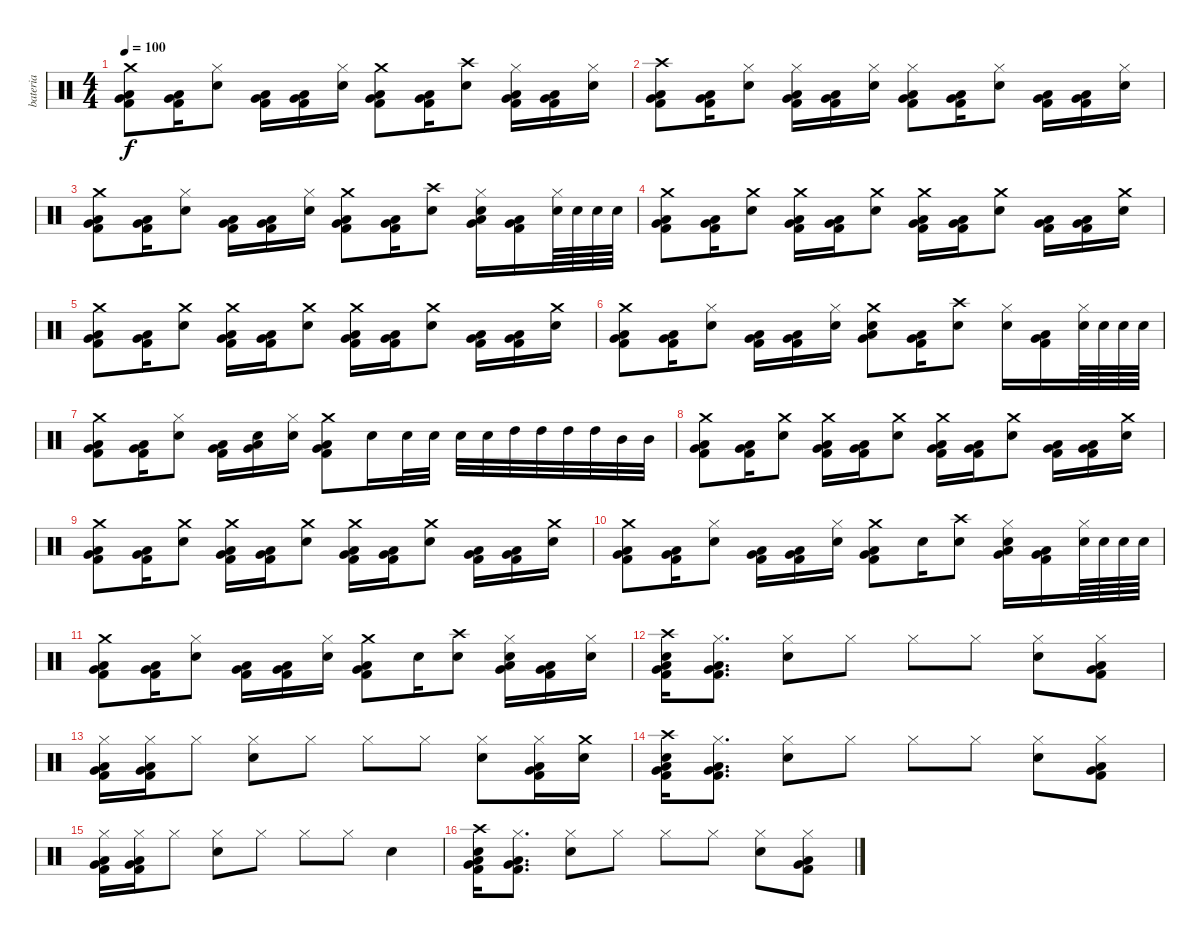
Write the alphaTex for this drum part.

\track ("bateria" "bateria") {instrument percussion}
\staff {score}
\articulation defaults
\ts (4 4)
\tempo 100
\clef neutral
\ks c
("Crash medium (hit)" "Kick (hit) 2" "Low Floor Tom (hit)" "Very Low Tom (hit)").8{dy f} ("Kick (hit) 2" "Low Floor Tom (hit)" "Very Low Tom (hit)").16 ("Hi-Hat (closed)" "Electric Snare (hit)").8 ("Kick (hit) 2" "Low Floor Tom (hit)" "Very Low Tom (hit)").16 ("Kick (hit) 2" "Low Floor Tom (hit)" "Very Low Tom (hit)").16 ("Hi-Hat (closed)" "Electric Snare (hit)").16 ("Crash medium (hit)" "Kick (hit) 2" "Low Floor Tom (hit)" "Very Low Tom (hit)").8 ("Kick (hit) 2" "Low Floor Tom (hit)" "Very Low Tom (hit)").16 ("Crash high (hit)" "Electric Snare (hit)").8 ("Hi-Hat (closed)" "Kick (hit) 2" "Low Floor Tom (hit)" "Very Low Tom (hit)").16 ("Kick (hit) 2" "Low Floor Tom (hit)" "Very Low Tom (hit)").16 ("Hi-Hat (closed)" "Electric Snare (hit)").16 |
("Crash high (hit)" "Kick (hit) 2" "Low Floor Tom (hit)" "Very Low Tom (hit)").8 ("Kick (hit) 2" "Low Floor Tom (hit)" "Very Low Tom (hit)").16 ("Hi-Hat (closed)" "Electric Snare (hit)").8 ("Hi-Hat (closed)" "Kick (hit) 2" "Low Floor Tom (hit)" "Very Low Tom (hit)").16 ("Kick (hit) 2" "Low Floor Tom (hit)" "Very Low Tom (hit)").16 ("Hi-Hat (closed)" "Electric Snare (hit)").16 ("Hi-Hat (closed)" "Kick (hit) 2" "Low Floor Tom (hit)" "Very Low Tom (hit)").8 ("Kick (hit) 2" "Low Floor Tom (hit)" "Very Low Tom (hit)").16 ("Hi-Hat (closed)" "Electric Snare (hit)").8 ("Kick (hit) 2" "Low Floor Tom (hit)" "Very Low Tom (hit)").16 ("Kick (hit) 2" "Low Floor Tom (hit)" "Very Low Tom (hit)").16 ("Hi-Hat (closed)" "Electric Snare (hit)").16 |
("Crash medium (hit)" "Kick (hit) 2" "Low Floor Tom (hit)" "Very Low Tom (hit)").8 ("Kick (hit) 2" "Low Floor Tom (hit)" "Very Low Tom (hit)").16 ("Hi-Hat (closed)" "Electric Snare (hit)").8 ("Kick (hit) 2" "Low Floor Tom (hit)" "Very Low Tom (hit)").16 ("Kick (hit) 2" "Low Floor Tom (hit)" "Very Low Tom (hit)").16 ("Hi-Hat (closed)" "Electric Snare (hit)").16 ("Crash medium (hit)" "Kick (hit) 2" "Low Floor Tom (hit)" "Very Low Tom (hit)").8 ("Kick (hit) 2" "Low Floor Tom (hit)" "Very Low Tom (hit)").16 ("Crash high (hit)" "Electric Snare (hit)").8 ("Hi-Hat (closed)" "Electric Snare (hit)" "Low Floor Tom (hit)" "Very Low Tom (hit)").16 ("Kick (hit) 2" "Low Floor Tom (hit)" "Very Low Tom (hit)").16 ("Hi-Hat (closed)" "Electric Snare (hit)").64 "Electric Snare (hit)".64 "Electric Snare (hit)".64 "Electric Snare (hit)".64 |
("Crash medium (hit)" "Kick (hit) 2" "Low Floor Tom (hit)" "Very Low Tom (hit)").8 ("Kick (hit) 2" "Low Floor Tom (hit)" "Very Low Tom (hit)").16 ("Crash medium (hit)" "Electric Snare (hit)").8 ("Crash medium (hit)" "Kick (hit) 2" "Low Floor Tom (hit)" "Very Low Tom (hit)").16 ("Kick (hit) 2" "Low Floor Tom (hit)" "Very Low Tom (hit)").16 ("Crash medium (hit)" "Electric Snare (hit)").8 ("Crash medium (hit)" "Kick (hit) 2" "Low Floor Tom (hit)" "Very Low Tom (hit)").16 ("Kick (hit) 2" "Low Floor Tom (hit)" "Very Low Tom (hit)").16 ("Crash medium (hit)" "Electric Snare (hit)").8 ("Kick (hit) 2" "Low Floor Tom (hit)" "Very Low Tom (hit)").16 ("Kick (hit) 2" "Low Floor Tom (hit)" "Very Low Tom (hit)").16 ("Crash medium (hit)" "Electric Snare (hit)").16 |
("Crash medium (hit)" "Kick (hit) 2" "Low Floor Tom (hit)" "Very Low Tom (hit)").8 ("Kick (hit) 2" "Low Floor Tom (hit)" "Very Low Tom (hit)").16 ("Crash medium (hit)" "Electric Snare (hit)").8 ("Crash medium (hit)" "Kick (hit) 2" "Low Floor Tom (hit)" "Very Low Tom (hit)").16 ("Kick (hit) 2" "Low Floor Tom (hit)" "Very Low Tom (hit)").16 ("Crash medium (hit)" "Electric Snare (hit)").8 ("Crash medium (hit)" "Kick (hit) 2" "Low Floor Tom (hit)" "Very Low Tom (hit)").16 ("Kick (hit) 2" "Low Floor Tom (hit)" "Very Low Tom (hit)").16 ("Crash medium (hit)" "Electric Snare (hit)").8 ("Kick (hit) 2" "Low Floor Tom (hit)" "Very Low Tom (hit)").16 ("Kick (hit) 2" "Low Floor Tom (hit)" "Very Low Tom (hit)").16 ("Crash medium (hit)" "Electric Snare (hit)").16 |
("Crash medium (hit)" "Kick (hit) 2" "Low Floor Tom (hit)" "Very Low Tom (hit)").8 ("Kick (hit) 2" "Low Floor Tom (hit)" "Very Low Tom (hit)").16 ("Hi-Hat (closed)" "Electric Snare (hit)").8 ("Kick (hit) 2" "Low Floor Tom (hit)" "Very Low Tom (hit)").16 ("Kick (hit) 2" "Low Floor Tom (hit)" "Very Low Tom (hit)").16 ("Hi-Hat (closed)" "Electric Snare (hit)").16 ("Crash medium (hit)" "Electric Snare (hit)" "Low Floor Tom (hit)" "Very Low Tom (hit)").8 ("Kick (hit) 2" "Low Floor Tom (hit)" "Very Low Tom (hit)").16 ("Crash high (hit)" "Electric Snare (hit)").8 ("Hi-Hat (closed)" "Electric Snare (hit)").16 ("Kick (hit) 2" "Low Floor Tom (hit)" "Very Low Tom (hit)").16 ("Hi-Hat (closed)" "Electric Snare (hit)").64 "Electric Snare (hit)".64 "Electric Snare (hit)".64 "Electric Snare (hit)".64 |
("Crash medium (hit)" "Kick (hit) 2" "Low Floor Tom (hit)" "Very Low Tom (hit)").8 ("Kick (hit) 2" "Low Floor Tom (hit)" "Very Low Tom (hit)").16 ("Hi-Hat (closed)" "Electric Snare (hit)").8 ("Kick (hit) 2" "Low Floor Tom (hit)" "Very Low Tom (hit)").16 ("Electric Snare (hit)" "Low Floor Tom (hit)" "Very Low Tom (hit)").16 ("Hi-Hat (closed)" "Electric Snare (hit)").16 ("Crash medium (hit)" "Kick (hit) 2" "Low Floor Tom (hit)" "Very Low Tom (hit)").8 "Electric Snare (hit)".16 "Electric Snare (hit)".32 "Electric Snare (hit)".32 "Electric Snare (hit)".32 "Electric Snare (hit)".32 "High Tom (hit)".32 "High Tom (hit)".32 "High Tom (hit)".32 "High Tom (hit)".32 "Mid Tom (hit)".32 "Mid Tom (hit)".32 |
("Crash medium (hit)" "Kick (hit) 2" "Low Floor Tom (hit)" "Very Low Tom (hit)").8 ("Kick (hit) 2" "Low Floor Tom (hit)" "Very Low Tom (hit)").16 ("Crash medium (hit)" "Electric Snare (hit)").8 ("Crash medium (hit)" "Kick (hit) 2" "Low Floor Tom (hit)" "Very Low Tom (hit)").16 ("Kick (hit) 2" "Low Floor Tom (hit)" "Very Low Tom (hit)").16 ("Crash medium (hit)" "Electric Snare (hit)").8 ("Crash medium (hit)" "Kick (hit) 2" "Low Floor Tom (hit)" "Very Low Tom (hit)").16 ("Kick (hit) 2" "Low Floor Tom (hit)" "Very Low Tom (hit)").16 ("Crash medium (hit)" "Electric Snare (hit)").8 ("Kick (hit) 2" "Low Floor Tom (hit)" "Very Low Tom (hit)").16 ("Kick (hit) 2" "Low Floor Tom (hit)" "Very Low Tom (hit)").16 ("Crash medium (hit)" "Electric Snare (hit)").16 |
("Crash medium (hit)" "Kick (hit) 2" "Low Floor Tom (hit)" "Very Low Tom (hit)").8 ("Kick (hit) 2" "Low Floor Tom (hit)" "Very Low Tom (hit)").16 ("Crash medium (hit)" "Electric Snare (hit)").8 ("Crash medium (hit)" "Kick (hit) 2" "Low Floor Tom (hit)" "Very Low Tom (hit)").16 ("Kick (hit) 2" "Low Floor Tom (hit)" "Very Low Tom (hit)").16 ("Crash medium (hit)" "Electric Snare (hit)").8 ("Crash medium (hit)" "Kick (hit) 2" "Low Floor Tom (hit)" "Very Low Tom (hit)").16 ("Kick (hit) 2" "Low Floor Tom (hit)" "Very Low Tom (hit)").16 ("Crash medium (hit)" "Electric Snare (hit)").8 ("Kick (hit) 2" "Low Floor Tom (hit)" "Very Low Tom (hit)").16 ("Kick (hit) 2" "Low Floor Tom (hit)" "Very Low Tom (hit)").16 ("Crash medium (hit)" "Electric Snare (hit)").16 |
("Crash medium (hit)" "Kick (hit) 2" "Low Floor Tom (hit)" "Very Low Tom (hit)").8 ("Kick (hit) 2" "Low Floor Tom (hit)" "Very Low Tom (hit)").16 ("Hi-Hat (closed)" "Electric Snare (hit)").8 ("Kick (hit) 2" "Low Floor Tom (hit)" "Very Low Tom (hit)").16 ("Kick (hit) 2" "Low Floor Tom (hit)" "Very Low Tom (hit)").16 ("Hi-Hat (closed)" "Electric Snare (hit)").16 ("Crash medium (hit)" "Kick (hit) 2" "Low Floor Tom (hit)" "Very Low Tom (hit)").8 "Electric Snare (hit)".16 ("Crash high (hit)" "Electric Snare (hit)").8 ("Hi-Hat (closed)" "Electric Snare (hit)" "Low Floor Tom (hit)" "Very Low Tom (hit)").16 ("Kick (hit) 2" "Low Floor Tom (hit)" "Very Low Tom (hit)").16 ("Hi-Hat (closed)" "Electric Snare (hit)").64 "Electric Snare (hit)".64 "Electric Snare (hit)".64 "Electric Snare (hit)".64 |
("Crash medium (hit)" "Kick (hit) 2" "Low Floor Tom (hit)" "Very Low Tom (hit)").8 ("Kick (hit) 2" "Low Floor Tom (hit)" "Very Low Tom (hit)").16 ("Hi-Hat (closed)" "Electric Snare (hit)").8 ("Kick (hit) 2" "Low Floor Tom (hit)" "Very Low Tom (hit)").16 ("Kick (hit) 2" "Low Floor Tom (hit)" "Very Low Tom (hit)").16 ("Hi-Hat (closed)" "Electric Snare (hit)").16 ("Crash medium (hit)" "Kick (hit) 2" "Low Floor Tom (hit)" "Very Low Tom (hit)").8 "Electric Snare (hit)".16 ("Crash high (hit)" "Electric Snare (hit)").8 ("Hi-Hat (closed)" "Electric Snare (hit)" "Low Floor Tom (hit)" "Very Low Tom (hit)").16 ("Kick (hit) 2" "Low Floor Tom (hit)" "Very Low Tom (hit)").16 ("Hi-Hat (closed)" "Electric Snare (hit)").16 |
("Crash high (hit)" "Electric Snare (hit)" "Low Floor Tom (hit)" "Kick (hit) 2" "Very Low Tom (hit)").16 ("Hi-Hat (closed)" "Low Floor Tom (hit)" "Kick (hit) 2" "Very Low Tom (hit)").8{d} ("Hi-Hat (closed)" "Electric Snare (hit)").8 "Hi-Hat (closed)".8 "Hi-Hat (closed)".8 "Hi-Hat (closed)".8 ("Hi-Hat (closed)" "Electric Snare (hit)").8 ("Hi-Hat (closed)" "Kick (hit) 2" "Low Floor Tom (hit)" "Very Low Tom (hit)").8 |
("Hi-Hat (closed)" "Kick (hit) 2" "Low Floor Tom (hit)" "Very Low Tom (hit)").16 ("Hi-Hat (closed)" "Kick (hit) 2" "Low Floor Tom (hit)" "Very Low Tom (hit)").16 "Hi-Hat (closed)".8 ("Hi-Hat (closed)" "Electric Snare (hit)").8 "Hi-Hat (closed)".8 "Hi-Hat (closed)".8 "Hi-Hat (closed)".8 ("Hi-Hat (closed)" "Electric Snare (hit)").8 ("Hi-Hat (closed)" "Kick (hit) 2" "Low Floor Tom (hit)" "Very Low Tom (hit)").16 ("Crash medium (hit)" "Electric Snare (hit)").16 |
("Crash high (hit)" "Electric Snare (hit)" "Low Floor Tom (hit)" "Kick (hit) 2" "Very Low Tom (hit)").16 ("Hi-Hat (closed)" "Low Floor Tom (hit)" "Kick (hit) 2" "Very Low Tom (hit)").8{d} ("Hi-Hat (closed)" "Electric Snare (hit)").8 "Hi-Hat (closed)".8 "Hi-Hat (closed)".8 "Hi-Hat (closed)".8 ("Hi-Hat (closed)" "Electric Snare (hit)").8 ("Hi-Hat (closed)" "Kick (hit) 2" "Low Floor Tom (hit)" "Very Low Tom (hit)").8 |
("Hi-Hat (closed)" "Kick (hit) 2" "Low Floor Tom (hit)" "Very Low Tom (hit)").16 ("Hi-Hat (closed)" "Kick (hit) 2" "Low Floor Tom (hit)" "Very Low Tom (hit)").16 "Hi-Hat (closed)".8 ("Hi-Hat (closed)" "Electric Snare (hit)").8 "Hi-Hat (closed)".8 "Hi-Hat (closed)".8 "Hi-Hat (closed)".8 "Electric Snare (hit)".4 |
("Crash high (hit)" "Electric Snare (hit)" "Low Floor Tom (hit)" "Kick (hit) 2" "Very Low Tom (hit)").16 ("Hi-Hat (closed)" "Low Floor Tom (hit)" "Kick (hit) 2" "Very Low Tom (hit)").8{d} ("Hi-Hat (closed)" "Electric Snare (hit)").8 "Hi-Hat (closed)".8 "Hi-Hat (closed)".8 "Hi-Hat (closed)".8 ("Hi-Hat (closed)" "Electric Snare (hit)").8 ("Hi-Hat (closed)" "Kick (hit) 2" "Low Floor Tom (hit)" "Very Low Tom (hit)").8
